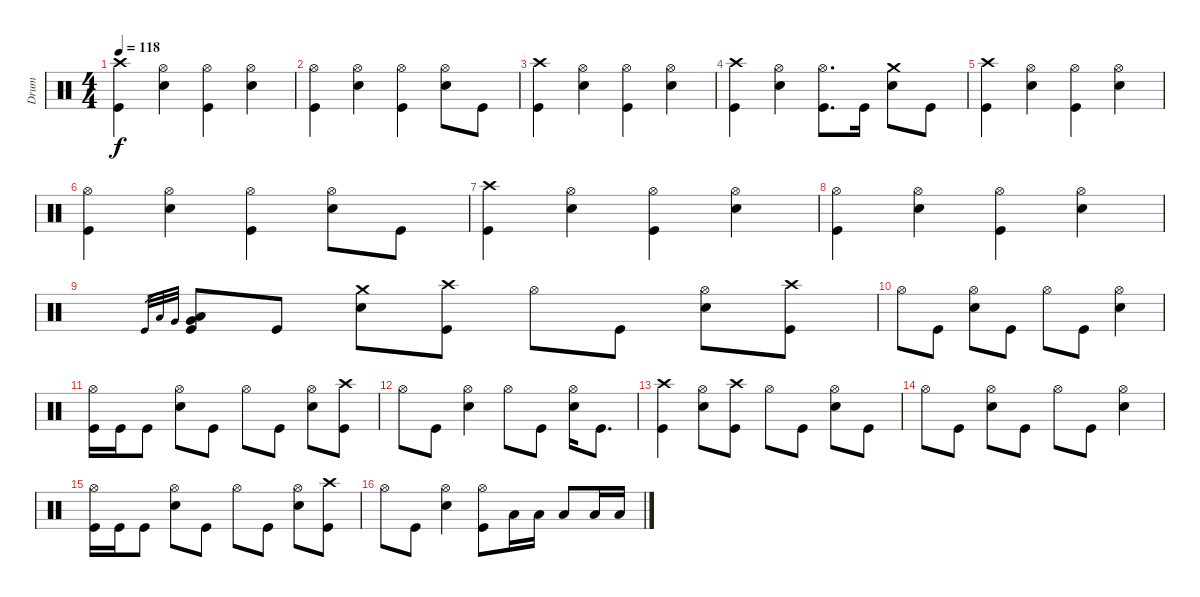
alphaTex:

\track ("Drum" "Drum") {instrument percussion}
\staff {score}
\articulation defaults
\ts (4 4)
\tempo 118
\clef neutral
\ks c
("Kick (hit)" "Crash high (hit)").4{dy f} ("Hi-Hat (open)" "Snare (hit) 2").4 ("Kick (hit)" "Hi-Hat (open)").4 ("Hi-Hat (open)" "Snare (hit) 2").4 |
("Kick (hit)" "Hi-Hat (open)").4 ("Hi-Hat (open)" "Snare (hit) 2").4 ("Kick (hit)" "Hi-Hat (open)").4 ("Hi-Hat (open)" "Snare (hit) 2").8 "Kick (hit)".8 |
("Kick (hit)" "Crash high (hit)").4 ("Hi-Hat (open)" "Snare (hit) 2").4 ("Kick (hit)" "Hi-Hat (open)").4 ("Hi-Hat (open)" "Snare (hit) 2").4 |
("Kick (hit)" "Crash high (hit)").4 ("Hi-Hat (open)" "Snare (hit) 2").4 ("Kick (hit)" "Hi-Hat (open)").8{d} "Kick (hit)".16 ("Crash medium (hit)" "Snare (hit) 2").8 "Kick (hit)".8 |
("Kick (hit)" "Crash high (hit)").4 ("Hi-Hat (open)" "Snare (hit) 2").4 ("Kick (hit)" "Hi-Hat (open)").4 ("Hi-Hat (open)" "Snare (hit) 2").4 |
("Kick (hit)" "Hi-Hat (open)").4 ("Hi-Hat (open)" "Snare (hit) 2").4 ("Kick (hit)" "Hi-Hat (open)").4 ("Hi-Hat (open)" "Snare (hit) 2").8 "Kick (hit)".8 |
("Kick (hit)" "Crash high (hit)").4 ("Hi-Hat (open)" "Snare (hit) 2").4 ("Kick (hit)" "Hi-Hat (open)").4 ("Hi-Hat (open)" "Snare (hit) 2").4 |
("Kick (hit)" "Hi-Hat (open)").4 ("Hi-Hat (open)" "Snare (hit) 2").4 ("Kick (hit)" "Hi-Hat (open)").4 ("Hi-Hat (open)" "Snare (hit) 2").4 |
"Kick (hit)".32{gr} "Low Floor Tom (hit)".32{gr} "Very Low Tom (hit)".32{gr} ("Kick (hit)" "Low Floor Tom (hit)" "Very Low Tom (hit)").8 "Kick (hit)".8 ("Snare (hit) 2" "Crash medium (hit)").8 ("Kick (hit)" "Crash high (hit)").8 "Hi-Hat (open)".8 "Kick (hit)".8 ("Hi-Hat (open)" "Snare (hit) 2").8 ("Kick (hit)" "Crash high (hit)").8 |
"Hi-Hat (open)".8 "Kick (hit)".8 ("Hi-Hat (open)" "Snare (hit) 2").8 "Kick (hit)".8 "Hi-Hat (open)".8 "Kick (hit)".8 ("Hi-Hat (open)" "Snare (hit) 2").4 |
("Kick (hit)" "Hi-Hat (open)").16 "Kick (hit)".16 "Kick (hit)".8 ("Hi-Hat (open)" "Snare (hit) 2").8 "Kick (hit)".8 "Hi-Hat (open)".8 "Kick (hit)".8 ("Hi-Hat (open)" "Snare (hit) 2").8 ("Kick (hit)" "Crash high (hit)").8 |
"Hi-Hat (open)".8 "Kick (hit)".8 ("Hi-Hat (open)" "Snare (hit) 2").4 "Hi-Hat (open)".8 "Kick (hit)".8 ("Hi-Hat (open)" "Snare (hit) 2").16 "Kick (hit)".8{d} |
("Kick (hit)" "Crash high (hit)").4 ("Hi-Hat (open)" "Snare (hit) 2").8 ("Kick (hit)" "Crash high (hit)").8 "Hi-Hat (open)".8 "Kick (hit)".8 ("Hi-Hat (open)" "Snare (hit) 2").8 "Kick (hit)".8 |
"Hi-Hat (open)".8 "Kick (hit)".8 ("Hi-Hat (open)" "Snare (hit) 2").8 "Kick (hit)".8 "Hi-Hat (open)".8 "Kick (hit)".8 ("Hi-Hat (open)" "Snare (hit) 2").4 |
("Kick (hit)" "Hi-Hat (open)").16 "Kick (hit)".16 "Kick (hit)".8 ("Hi-Hat (open)" "Snare (hit) 2").8 "Kick (hit)".8 "Hi-Hat (open)".8 "Kick (hit)".8 ("Hi-Hat (open)" "Snare (hit) 2").8 ("Kick (hit)" "Crash high (hit)").8 |
"Hi-Hat (open)".8 "Kick (hit)".8 ("Hi-Hat (open)" "Snare (hit) 2").4 ("Kick (hit)" "Hi-Hat (open)").8 "Low Floor Tom (hit)".16 "Low Floor Tom (hit)".16 "Low Floor Tom (hit)".8 "Low Floor Tom (hit)".16 "Low Floor Tom (hit)".16
